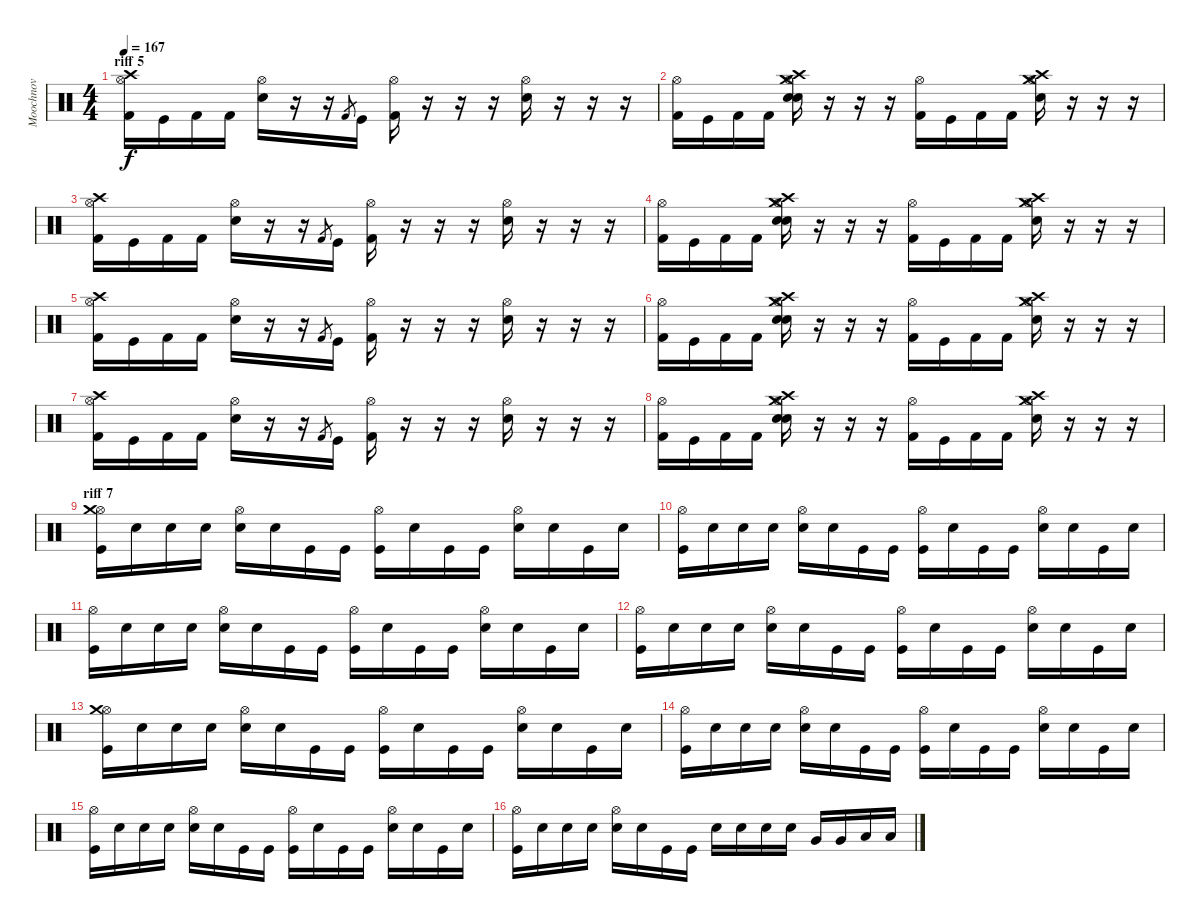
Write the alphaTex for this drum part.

\track ("Moochnov" "Moochnov") {instrument percussion}
\staff {score}
\articulation defaults
\ts (4 4)
\section ("" "riff 5")
\tempo 167
\clef neutral
\ks c
("Kick (hit) 2" "Hi-Hat (open)" "Crash high (hit)").16{dy f} "Kick (hit)".16 "Kick (hit) 2".16 "Kick (hit) 2".16 ("Snare (hit) 2" "Hi-Hat (open)").16 r.16 r.16 "Kick (hit) 2".8{gr} "Kick (hit)".16 ("Kick (hit) 2" "Hi-Hat (open)").16 r.16 r.16 r.16 ("Snare (hit) 2" "Hi-Hat (open)").16 r.16 r.16 r.16 |
("Kick (hit) 2" "Hi-Hat (open)").16 "Kick (hit)".16 "Kick (hit) 2".16 "Kick (hit) 2".16 ("Snare (hit) 2" "Snare (hit) 2" "Hi-Hat (open)" "Crash high (hit)" "Crash medium (hit)").16 r.16 r.16 r.16 ("Kick (hit) 2" "Hi-Hat (open)").16 "Kick (hit)".16 "Kick (hit) 2".16 "Kick (hit) 2".16 ("Snare (hit) 2" "Hi-Hat (open)" "Crash high (hit)" "Crash medium (hit)").16 r.16 r.16 r.16 |
("Kick (hit) 2" "Hi-Hat (open)" "Crash high (hit)").16 "Kick (hit)".16 "Kick (hit) 2".16 "Kick (hit) 2".16 ("Snare (hit) 2" "Hi-Hat (open)").16 r.16 r.16 "Kick (hit) 2".8{gr} "Kick (hit)".16 ("Kick (hit) 2" "Hi-Hat (open)").16 r.16 r.16 r.16 ("Snare (hit) 2" "Hi-Hat (open)").16 r.16 r.16 r.16 |
("Kick (hit) 2" "Hi-Hat (open)").16 "Kick (hit)".16 "Kick (hit) 2".16 "Kick (hit) 2".16 ("Snare (hit) 2" "Snare (hit) 2" "Hi-Hat (open)" "Crash high (hit)" "Crash medium (hit)").16 r.16 r.16 r.16 ("Kick (hit) 2" "Hi-Hat (open)").16 "Kick (hit)".16 "Kick (hit) 2".16 "Kick (hit) 2".16 ("Snare (hit) 2" "Hi-Hat (open)" "Crash high (hit)" "Crash medium (hit)").16 r.16 r.16 r.16 |
("Kick (hit) 2" "Hi-Hat (open)" "Crash high (hit)").16 "Kick (hit)".16 "Kick (hit) 2".16 "Kick (hit) 2".16 ("Snare (hit) 2" "Hi-Hat (open)").16 r.16 r.16 "Kick (hit) 2".8{gr} "Kick (hit)".16 ("Kick (hit) 2" "Hi-Hat (open)").16 r.16 r.16 r.16 ("Snare (hit) 2" "Hi-Hat (open)").16 r.16 r.16 r.16 |
("Kick (hit) 2" "Hi-Hat (open)").16 "Kick (hit)".16 "Kick (hit) 2".16 "Kick (hit) 2".16 ("Snare (hit) 2" "Snare (hit) 2" "Hi-Hat (open)" "Crash high (hit)" "Crash medium (hit)").16 r.16 r.16 r.16 ("Kick (hit) 2" "Hi-Hat (open)").16 "Kick (hit)".16 "Kick (hit) 2".16 "Kick (hit) 2".16 ("Snare (hit) 2" "Hi-Hat (open)" "Crash high (hit)" "Crash medium (hit)").16 r.16 r.16 r.16 |
("Kick (hit) 2" "Hi-Hat (open)" "Crash high (hit)").16 "Kick (hit)".16 "Kick (hit) 2".16 "Kick (hit) 2".16 ("Snare (hit) 2" "Hi-Hat (open)").16 r.16 r.16 "Kick (hit) 2".8{gr} "Kick (hit)".16 ("Kick (hit) 2" "Hi-Hat (open)").16 r.16 r.16 r.16 ("Snare (hit) 2" "Hi-Hat (open)").16 r.16 r.16 r.16 |
("Kick (hit) 2" "Hi-Hat (open)").16 "Kick (hit)".16 "Kick (hit) 2".16 "Kick (hit) 2".16 ("Snare (hit) 2" "Snare (hit) 2" "Hi-Hat (open)" "Crash high (hit)" "Crash medium (hit)").16 r.16 r.16 r.16 ("Kick (hit) 2" "Hi-Hat (open)").16 "Kick (hit)".16 "Kick (hit) 2".16 "Kick (hit) 2".16 ("Snare (hit) 2" "Hi-Hat (open)" "Crash high (hit)" "Crash medium (hit)").16 r.16 r.16 r.16 |
\section ("" "riff 7")
("Kick (hit)" "Hi-Hat (open)" "Crash medium (hit)").16 "Snare (hit)"{x}.16 "Snare (hit)"{x}.16 "Snare (hit)"{x}.16 ("Snare (hit) 2" "Hi-Hat (open)").16 "Snare (hit)"{x}.16 "Kick (hit)".16 "Kick (hit)".16 ("Kick (hit)" "Hi-Hat (open)").16 "Snare (hit)"{x}.16 "Kick (hit)".16 "Kick (hit)".16 ("Snare (hit) 2" "Hi-Hat (open)").16 "Snare (hit)"{x}.16 "Kick (hit)".16 "Snare (hit)"{x}.16 |
("Kick (hit)" "Hi-Hat (open)").16 "Snare (hit)"{x}.16 "Snare (hit)"{x}.16 "Snare (hit)"{x}.16 ("Snare (hit) 2" "Hi-Hat (open)").16 "Snare (hit)"{x}.16 "Kick (hit)".16 "Kick (hit)".16 ("Kick (hit)" "Hi-Hat (open)").16 "Snare (hit)"{x}.16 "Kick (hit)".16 "Kick (hit)".16 ("Snare (hit) 2" "Hi-Hat (open)").16 "Snare (hit)"{x}.16 "Kick (hit)".16 "Snare (hit)"{x}.16 |
("Kick (hit)" "Hi-Hat (open)").16 "Snare (hit)"{x}.16 "Snare (hit)"{x}.16 "Snare (hit)"{x}.16 ("Snare (hit) 2" "Hi-Hat (open)").16 "Snare (hit)"{x}.16 "Kick (hit)".16 "Kick (hit)".16 ("Kick (hit)" "Hi-Hat (open)").16 "Snare (hit)"{x}.16 "Kick (hit)".16 "Kick (hit)".16 ("Snare (hit) 2" "Hi-Hat (open)").16 "Snare (hit)"{x}.16 "Kick (hit)".16 "Snare (hit)"{x}.16 |
("Kick (hit)" "Hi-Hat (open)").16 "Snare (hit)"{x}.16 "Snare (hit)"{x}.16 "Snare (hit)"{x}.16 ("Snare (hit) 2" "Hi-Hat (open)").16 "Snare (hit)"{x}.16 "Kick (hit)".16 "Kick (hit)".16 ("Kick (hit)" "Hi-Hat (open)").16 "Snare (hit)"{x}.16 "Kick (hit)".16 "Kick (hit)".16 ("Snare (hit) 2" "Hi-Hat (open)").16 "Snare (hit)"{x}.16 "Kick (hit)".16 "Snare (hit)"{x}.16 |
("Kick (hit)" "Hi-Hat (open)" "Crash medium (hit)").16 "Snare (hit)"{x}.16 "Snare (hit)"{x}.16 "Snare (hit)"{x}.16 ("Snare (hit) 2" "Hi-Hat (open)").16 "Snare (hit)"{x}.16 "Kick (hit)".16 "Kick (hit)".16 ("Kick (hit)" "Hi-Hat (open)").16 "Snare (hit)"{x}.16 "Kick (hit)".16 "Kick (hit)".16 ("Snare (hit) 2" "Hi-Hat (open)").16 "Snare (hit)"{x}.16 "Kick (hit)".16 "Snare (hit)"{x}.16 |
("Kick (hit)" "Hi-Hat (open)").16 "Snare (hit)"{x}.16 "Snare (hit)"{x}.16 "Snare (hit)"{x}.16 ("Snare (hit) 2" "Hi-Hat (open)").16 "Snare (hit)"{x}.16 "Kick (hit)".16 "Kick (hit)".16 ("Kick (hit)" "Hi-Hat (open)").16 "Snare (hit)"{x}.16 "Kick (hit)".16 "Kick (hit)".16 ("Snare (hit) 2" "Hi-Hat (open)").16 "Snare (hit)"{x}.16 "Kick (hit)".16 "Snare (hit)"{x}.16 |
("Kick (hit)" "Hi-Hat (open)").16 "Snare (hit)"{x}.16 "Snare (hit)"{x}.16 "Snare (hit)"{x}.16 ("Snare (hit) 2" "Hi-Hat (open)").16 "Snare (hit)"{x}.16 "Kick (hit)".16 "Kick (hit)".16 ("Kick (hit)" "Hi-Hat (open)").16 "Snare (hit)"{x}.16 "Kick (hit)".16 "Kick (hit)".16 ("Snare (hit) 2" "Hi-Hat (open)").16 "Snare (hit)"{x}.16 "Kick (hit)".16 "Snare (hit)"{x}.16 |
("Kick (hit)" "Hi-Hat (open)").16 "Snare (hit)"{x}.16 "Snare (hit)"{x}.16 "Snare (hit)"{x}.16 ("Snare (hit) 2" "Hi-Hat (open)").16 "Snare (hit)"{x}.16 "Kick (hit)".16 "Kick (hit)".16 "Snare (hit) 2".16 "Snare (hit) 2".16 "Snare (hit) 2".16 "Snare (hit) 2".16 "Very Low Tom (hit)".16 "Very Low Tom (hit)".16 "Low Floor Tom (hit)".16 "Low Floor Tom (hit)".16
